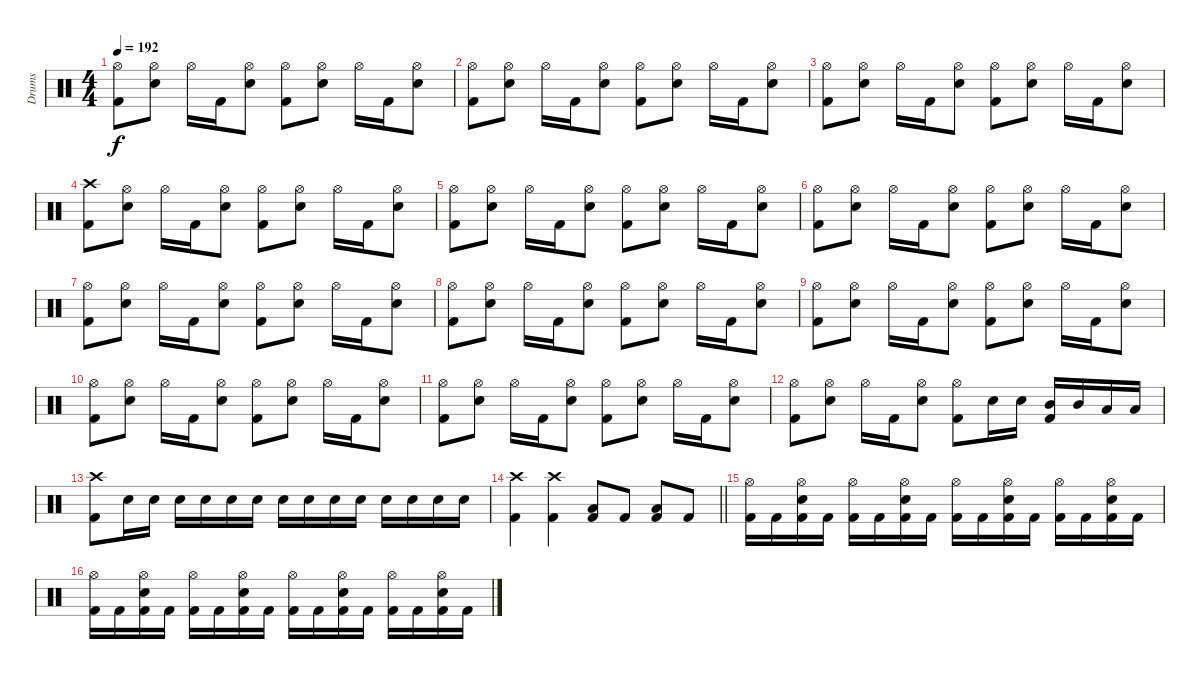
\track ("Drums" "Drums") {instrument percussion}
\staff {score}
\articulation defaults
\ts (4 4)
\tempo 192
\clef neutral
\ks c
("Hi-Hat (open)" "Kick (hit) 2").8{dy f} ("Hi-Hat (open)" "Snare (hit) 2").8 "Hi-Hat (open)".16 "Kick (hit) 2".16 ("Hi-Hat (open)" "Snare (hit) 2").8 ("Hi-Hat (open)" "Kick (hit) 2").8 ("Hi-Hat (open)" "Snare (hit) 2").8 "Hi-Hat (open)".16 "Kick (hit) 2".16 ("Hi-Hat (open)" "Snare (hit) 2").8 |
("Hi-Hat (open)" "Kick (hit) 2").8 ("Hi-Hat (open)" "Snare (hit) 2").8 "Hi-Hat (open)".16 "Kick (hit) 2".16 ("Hi-Hat (open)" "Snare (hit) 2").8 ("Hi-Hat (open)" "Kick (hit) 2").8 ("Hi-Hat (open)" "Snare (hit) 2").8 "Hi-Hat (open)".16 "Kick (hit) 2".16 ("Hi-Hat (open)" "Snare (hit) 2").8 |
("Hi-Hat (open)" "Kick (hit) 2").8 ("Hi-Hat (open)" "Snare (hit) 2").8 "Hi-Hat (open)".16 "Kick (hit) 2".16 ("Hi-Hat (open)" "Snare (hit) 2").8 ("Hi-Hat (open)" "Kick (hit) 2").8 ("Hi-Hat (open)" "Snare (hit) 2").8 "Hi-Hat (open)".16 "Kick (hit) 2".16 ("Hi-Hat (open)" "Snare (hit) 2").8 |
("Crash high (hit)" "Kick (hit) 2").8 ("Hi-Hat (open)" "Snare (hit) 2").8 "Hi-Hat (open)".16 "Kick (hit) 2".16 ("Hi-Hat (open)" "Snare (hit) 2").8 ("Hi-Hat (open)" "Kick (hit) 2").8 ("Hi-Hat (open)" "Snare (hit) 2").8 "Hi-Hat (open)".16 "Kick (hit) 2".16 ("Hi-Hat (open)" "Snare (hit) 2").8 |
("Hi-Hat (open)" "Kick (hit) 2").8 ("Hi-Hat (open)" "Snare (hit) 2").8 "Hi-Hat (open)".16 "Kick (hit) 2".16 ("Hi-Hat (open)" "Snare (hit) 2").8 ("Hi-Hat (open)" "Kick (hit) 2").8 ("Hi-Hat (open)" "Snare (hit) 2").8 "Hi-Hat (open)".16 "Kick (hit) 2".16 ("Hi-Hat (open)" "Snare (hit) 2").8 |
("Hi-Hat (open)" "Kick (hit) 2").8 ("Hi-Hat (open)" "Snare (hit) 2").8 "Hi-Hat (open)".16 "Kick (hit) 2".16 ("Hi-Hat (open)" "Snare (hit) 2").8 ("Hi-Hat (open)" "Kick (hit) 2").8 ("Hi-Hat (open)" "Snare (hit) 2").8 "Hi-Hat (open)".16 "Kick (hit) 2".16 ("Hi-Hat (open)" "Snare (hit) 2").8 |
("Hi-Hat (open)" "Kick (hit) 2").8 ("Hi-Hat (open)" "Snare (hit) 2").8 "Hi-Hat (open)".16 "Kick (hit) 2".16 ("Hi-Hat (open)" "Snare (hit) 2").8 ("Hi-Hat (open)" "Kick (hit) 2").8 ("Hi-Hat (open)" "Snare (hit) 2").8 "Hi-Hat (open)".16 "Kick (hit) 2".16 ("Hi-Hat (open)" "Snare (hit) 2").8 |
("Hi-Hat (open)" "Kick (hit) 2").8 ("Hi-Hat (open)" "Snare (hit) 2").8 "Hi-Hat (open)".16 "Kick (hit) 2".16 ("Hi-Hat (open)" "Snare (hit) 2").8 ("Hi-Hat (open)" "Kick (hit) 2").8 ("Hi-Hat (open)" "Snare (hit) 2").8 "Hi-Hat (open)".16 "Kick (hit) 2".16 ("Hi-Hat (open)" "Snare (hit) 2").8 |
("Hi-Hat (open)" "Kick (hit) 2").8 ("Hi-Hat (open)" "Snare (hit) 2").8 "Hi-Hat (open)".16 "Kick (hit) 2".16 ("Hi-Hat (open)" "Snare (hit) 2").8 ("Hi-Hat (open)" "Kick (hit) 2").8 ("Hi-Hat (open)" "Snare (hit) 2").8 "Hi-Hat (open)".16 "Kick (hit) 2".16 ("Hi-Hat (open)" "Snare (hit) 2").8 |
("Hi-Hat (open)" "Kick (hit) 2").8 ("Hi-Hat (open)" "Snare (hit) 2").8 "Hi-Hat (open)".16 "Kick (hit) 2".16 ("Hi-Hat (open)" "Snare (hit) 2").8 ("Hi-Hat (open)" "Kick (hit) 2").8 ("Hi-Hat (open)" "Snare (hit) 2").8 "Hi-Hat (open)".16 "Kick (hit) 2".16 ("Hi-Hat (open)" "Snare (hit) 2").8 |
("Hi-Hat (open)" "Kick (hit) 2").8 ("Hi-Hat (open)" "Snare (hit) 2").8 "Hi-Hat (open)".16 "Kick (hit) 2".16 ("Hi-Hat (open)" "Snare (hit) 2").8 ("Hi-Hat (open)" "Kick (hit) 2").8 ("Hi-Hat (open)" "Snare (hit) 2").8 "Hi-Hat (open)".16 "Kick (hit) 2".16 ("Hi-Hat (open)" "Snare (hit) 2").8 |
("Hi-Hat (open)" "Kick (hit) 2").8 ("Hi-Hat (open)" "Snare (hit) 2").8 "Hi-Hat (open)".16 "Kick (hit) 2".16 ("Hi-Hat (open)" "Snare (hit) 2").8 ("Hi-Hat (open)" "Kick (hit) 2").8 "Snare (hit) 2".16 "Snare (hit) 2".16 ("Mid Tom (hit)" "Kick (hit) 2").16 "Mid Tom (hit)".16 "Low Floor Tom (hit)".16 "Low Floor Tom (hit)".16 |
("Crash high (hit)" "Kick (hit) 2").8 "Snare (hit) 2".16 "Snare (hit) 2".16 "Snare (hit) 2".16 "Snare (hit) 2".16 "Snare (hit) 2".16 "Snare (hit) 2".16 "Snare (hit) 2".16 "Snare (hit) 2".16 "Snare (hit) 2".16 "Snare (hit) 2".16 "Snare (hit) 2".16 "Snare (hit) 2".16 "Snare (hit) 2".16 "Snare (hit) 2".16 |
\barLineRight lightlight
("Crash high (hit)" "Kick (hit) 2").4 ("Crash high (hit)" "Kick (hit) 2").4 ("Low Floor Tom (hit)" "Kick (hit) 2").8 "Kick (hit) 2".8 ("Low Floor Tom (hit)" "Kick (hit) 2").8 "Kick (hit) 2".8 |
("Hi-Hat (open)" "Kick (hit) 2").16 "Kick (hit) 2".16 ("Hi-Hat (open)" "Snare (hit) 2" "Kick (hit) 2").16 "Kick (hit) 2".16 ("Hi-Hat (open)" "Kick (hit) 2").16 "Kick (hit) 2".16 ("Hi-Hat (open)" "Snare (hit) 2" "Kick (hit) 2").16 "Kick (hit) 2".16 ("Hi-Hat (open)" "Kick (hit) 2").16 "Kick (hit) 2".16 ("Hi-Hat (open)" "Snare (hit) 2" "Kick (hit) 2").16 "Kick (hit) 2".16 ("Hi-Hat (open)" "Kick (hit) 2").16 "Kick (hit) 2".16 ("Hi-Hat (open)" "Snare (hit) 2" "Kick (hit) 2").16 "Kick (hit) 2".16 |
("Hi-Hat (open)" "Kick (hit) 2").16 "Kick (hit) 2".16 ("Hi-Hat (open)" "Snare (hit) 2" "Kick (hit) 2").16 "Kick (hit) 2".16 ("Hi-Hat (open)" "Kick (hit) 2").16 "Kick (hit) 2".16 ("Hi-Hat (open)" "Snare (hit) 2" "Kick (hit) 2").16 "Kick (hit) 2".16 ("Hi-Hat (open)" "Kick (hit) 2").16 "Kick (hit) 2".16 ("Hi-Hat (open)" "Snare (hit) 2" "Kick (hit) 2").16 "Kick (hit) 2".16 ("Hi-Hat (open)" "Kick (hit) 2").16 "Kick (hit) 2".16 ("Hi-Hat (open)" "Snare (hit) 2" "Kick (hit) 2").16 "Kick (hit) 2".16
